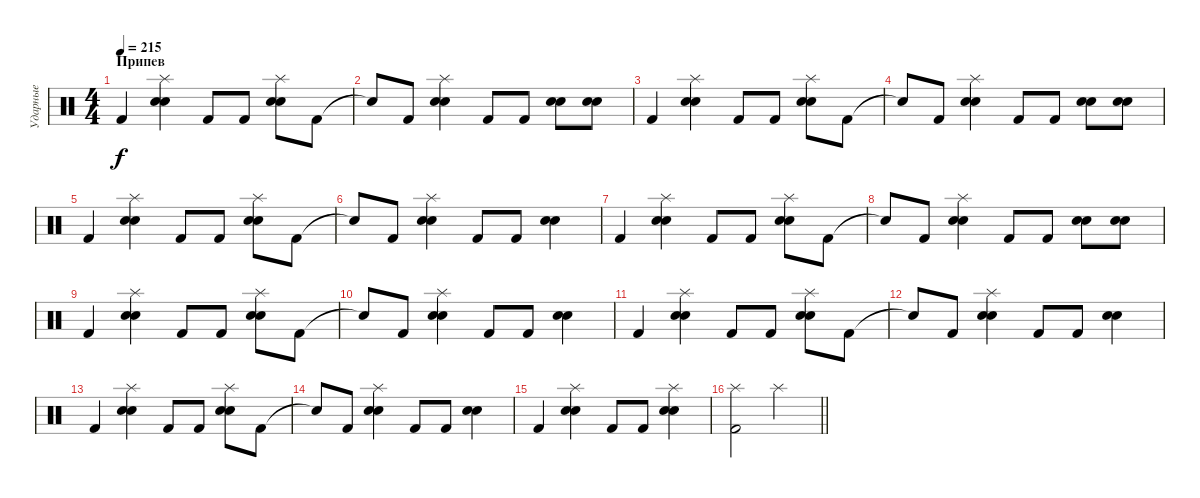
\track ("Ударные" "Ударные") {instrument percussion}
\staff {score}
\articulation defaults
\ts (4 4)
\section ("" "Припев")
\tempo 215
\clef neutral
\ks c "Kick (hit) 2".4{dy f}
("Splash (hit)" "Electric Snare (hit)" "Snare (hit) 2").4 "Kick (hit) 2".8 "Kick (hit) 2".8 ("Splash (hit)" "Electric Snare (hit)" "Snare (hit) 2").8 "Kick (hit) 2".8 |
"Snare (hit)"{t}.8 "Kick (hit) 2".8 ("Splash (hit)" "Electric Snare (hit)" "Snare (hit) 2").4 "Kick (hit) 2".8 "Kick (hit) 2".8 ("Electric Snare (hit)" "Snare (hit) 2").8 ("Electric Snare (hit)" "Snare (hit) 2").8 |
"Kick (hit) 2".4 ("Splash (hit)" "Electric Snare (hit)" "Snare (hit) 2").4 "Kick (hit) 2".8 "Kick (hit) 2".8 ("Splash (hit)" "Electric Snare (hit)" "Snare (hit) 2").8 "Kick (hit) 2".8 |
"Snare (hit)"{t}.8 "Kick (hit) 2".8 ("Splash (hit)" "Electric Snare (hit)" "Snare (hit) 2").4 "Kick (hit) 2".8 "Kick (hit) 2".8 ("Electric Snare (hit)" "Snare (hit) 2").8 ("Electric Snare (hit)" "Snare (hit) 2").8 |
"Kick (hit) 2".4 ("Splash (hit)" "Electric Snare (hit)" "Snare (hit) 2").4 "Kick (hit) 2".8 "Kick (hit) 2".8 ("Splash (hit)" "Electric Snare (hit)" "Snare (hit) 2").8 "Kick (hit) 2".8 |
"Snare (hit)"{t}.8 "Kick (hit) 2".8 ("Splash (hit)" "Electric Snare (hit)" "Snare (hit) 2").4 "Kick (hit) 2".8 "Kick (hit) 2".8 ("Electric Snare (hit)" "Snare (hit) 2").4 |
"Kick (hit) 2".4 ("Splash (hit)" "Electric Snare (hit)" "Snare (hit) 2").4 "Kick (hit) 2".8 "Kick (hit) 2".8 ("Splash (hit)" "Electric Snare (hit)" "Snare (hit) 2").8 "Kick (hit) 2".8 |
"Snare (hit)"{t}.8 "Kick (hit) 2".8 ("Splash (hit)" "Electric Snare (hit)" "Snare (hit) 2").4 "Kick (hit) 2".8 "Kick (hit) 2".8 ("Electric Snare (hit)" "Snare (hit) 2").8 ("Electric Snare (hit)" "Snare (hit) 2").8 |
"Kick (hit) 2".4 ("Splash (hit)" "Electric Snare (hit)" "Snare (hit) 2").4 "Kick (hit) 2".8 "Kick (hit) 2".8 ("Splash (hit)" "Electric Snare (hit)" "Snare (hit) 2").8 "Kick (hit) 2".8 |
"Snare (hit)"{t}.8 "Kick (hit) 2".8 ("Splash (hit)" "Electric Snare (hit)" "Snare (hit) 2").4 "Kick (hit) 2".8 "Kick (hit) 2".8 ("Electric Snare (hit)" "Snare (hit) 2").4 |
"Kick (hit) 2".4 ("Splash (hit)" "Electric Snare (hit)" "Snare (hit) 2").4 "Kick (hit) 2".8 "Kick (hit) 2".8 ("Splash (hit)" "Electric Snare (hit)" "Snare (hit) 2").8 "Kick (hit) 2".8 |
"Snare (hit)"{t}.8 "Kick (hit) 2".8 ("Splash (hit)" "Electric Snare (hit)" "Snare (hit) 2").4 "Kick (hit) 2".8 "Kick (hit) 2".8 ("Electric Snare (hit)" "Snare (hit) 2").4 |
"Kick (hit) 2".4 ("Splash (hit)" "Electric Snare (hit)" "Snare (hit) 2").4 "Kick (hit) 2".8 "Kick (hit) 2".8 ("Splash (hit)" "Electric Snare (hit)" "Snare (hit) 2").8 "Kick (hit) 2".8 |
"Snare (hit)"{t}.8 "Kick (hit) 2".8 ("Splash (hit)" "Electric Snare (hit)" "Snare (hit) 2").4 "Kick (hit) 2".8 "Kick (hit) 2".8 ("Electric Snare (hit)" "Snare (hit) 2").4 |
"Kick (hit) 2".4 ("Splash (hit)" "Electric Snare (hit)" "Snare (hit) 2").4 "Kick (hit) 2".8 "Kick (hit) 2".8 ("Splash (hit)" "Electric Snare (hit)" "Snare (hit) 2").4 |
\barLineRight lightlight
("Splash (hit)" "Kick (hit) 2").2 "Splash (hit)".2
